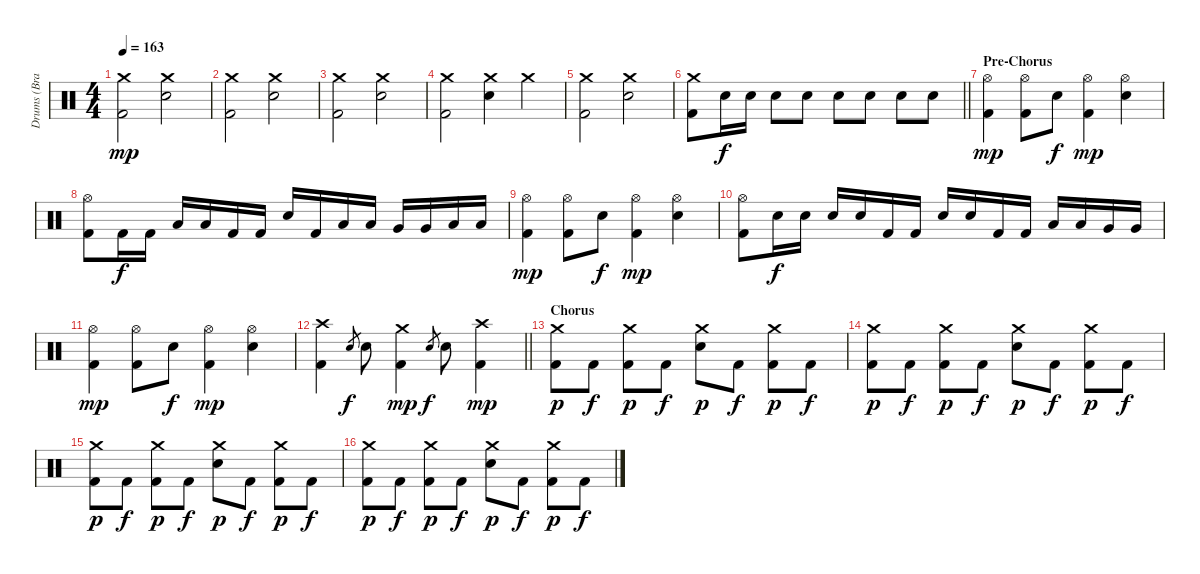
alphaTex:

\track ("Drums (Brandon Saller)" "Drums (Bra") {instrument percussion}
\staff {score}
\articulation defaults
\ts (4 4)
\tempo 163
\clef neutral
\ks c
("Crash medium (hit)" "Kick (hit) 2").2{dy mp} ("Crash medium (hit)" "Electric Snare (hit)").2 |
("Crash medium (hit)" "Kick (hit) 2").2 ("Crash medium (hit)" "Electric Snare (hit)").2 |
("Crash medium (hit)" "Kick (hit) 2").2 ("Crash medium (hit)" "Electric Snare (hit)").2 |
("Crash medium (hit)" "Kick (hit) 2").2 ("Crash medium (hit)" "Electric Snare (hit)").4 "Crash medium (hit)".4 |
("Crash medium (hit)" "Kick (hit) 2").2 ("Crash medium (hit)" "Electric Snare (hit)").2 |
\barLineRight lightlight
("Crash medium (hit)" "Kick (hit) 2").8 "Electric Snare (hit)".16{dy f} "Electric Snare (hit)".16 "Electric Snare (hit)".8 "Electric Snare (hit)".8 "Electric Snare (hit)".8 "Electric Snare (hit)".8 "Electric Snare (hit)".8 "Electric Snare (hit)".8 |
\section ("" "Pre-Chorus")
("Hi-Hat (open)" "Kick (hit) 2").4{dy mp} ("Hi-Hat (open)" "Kick (hit) 2").8 "Electric Snare (hit)".8{dy f} ("Hi-Hat (open)" "Kick (hit) 2").4{dy mp} ("Hi-Hat (open)" "Electric Snare (hit)").4 |
("Hi-Hat (open)" "Kick (hit) 2").8 "Kick (hit) 2".16{dy f} "Kick (hit) 2".16 "Low Tom (hit)".16 "Low Tom (hit)".16 "Kick (hit) 2".16 "Kick (hit) 2".16 "Electric Snare (hit)".16 "Kick (hit) 2".16 "Low Tom (hit)".16 "Low Tom (hit)".16 "Very Low Tom (hit)".16 "Very Low Tom (hit)".16 "Low Floor Tom (hit)".16 "Low Floor Tom (hit)".16 |
("Hi-Hat (open)" "Kick (hit) 2").4{dy mp} ("Hi-Hat (open)" "Kick (hit) 2").8 "Electric Snare (hit)".8{dy f} ("Hi-Hat (open)" "Kick (hit) 2").4{dy mp} ("Hi-Hat (open)" "Electric Snare (hit)").4 |
("Hi-Hat (open)" "Kick (hit) 2").8 "Electric Snare (hit)".16{dy f} "Electric Snare (hit)".16 "Electric Snare (hit)".16 "Electric Snare (hit)".16 "Kick (hit) 2".16 "Kick (hit) 2".16 "Electric Snare (hit)".16 "Electric Snare (hit)".16 "Kick (hit) 2".16 "Kick (hit) 2".16 "Low Tom (hit)".16 "Low Tom (hit)".16 "Very Low Tom (hit)".16 "Very Low Tom (hit)".16 |
("Hi-Hat (open)" "Kick (hit) 2").4{dy mp} ("Hi-Hat (open)" "Kick (hit) 2").8 "Electric Snare (hit)".8{dy f} ("Hi-Hat (open)" "Kick (hit) 2").4{dy mp} ("Hi-Hat (open)" "Electric Snare (hit)").4 |
\barLineRight lightlight
("Crash high (hit)" "Kick (hit) 2").4 "Electric Snare (hit)".8{gr dy f} "Electric Snare (hit)".8 ("Crash medium (hit)" "Kick (hit) 2").4{dy mp} "Electric Snare (hit)".8{gr dy f} "Electric Snare (hit)".8 ("Crash high (hit)" "Kick (hit) 2").4{dy mp} |
\section ("" "Chorus")
("Crash medium (hit)" "Kick (hit) 2").8{dy p} "Kick (hit) 2".8{dy f} ("Crash medium (hit)" "Kick (hit) 2").8{dy p} "Kick (hit) 2".8{dy f} ("Crash medium (hit)" "Electric Snare (hit)").8{dy p} "Kick (hit) 2".8{dy f} ("Crash medium (hit)" "Kick (hit) 2").8{dy p} "Kick (hit) 2".8{dy f} |
("Crash medium (hit)" "Kick (hit) 2").8{dy p} "Kick (hit) 2".8{dy f} ("Crash medium (hit)" "Kick (hit) 2").8{dy p} "Kick (hit) 2".8{dy f} ("Crash medium (hit)" "Electric Snare (hit)").8{dy p} "Kick (hit) 2".8{dy f} ("Crash medium (hit)" "Kick (hit) 2").8{dy p} "Kick (hit) 2".8{dy f} |
("Crash medium (hit)" "Kick (hit) 2").8{dy p} "Kick (hit) 2".8{dy f} ("Crash medium (hit)" "Kick (hit) 2").8{dy p} "Kick (hit) 2".8{dy f} ("Crash medium (hit)" "Electric Snare (hit)").8{dy p} "Kick (hit) 2".8{dy f} ("Crash medium (hit)" "Kick (hit) 2").8{dy p} "Kick (hit) 2".8{dy f} |
("Crash medium (hit)" "Kick (hit) 2").8{dy p} "Kick (hit) 2".8{dy f} ("Crash medium (hit)" "Kick (hit) 2").8{dy p} "Kick (hit) 2".8{dy f} ("Crash medium (hit)" "Electric Snare (hit)").8{dy p} "Kick (hit) 2".8{dy f} ("Crash medium (hit)" "Kick (hit) 2").8{dy p} "Kick (hit) 2".8{dy f}
